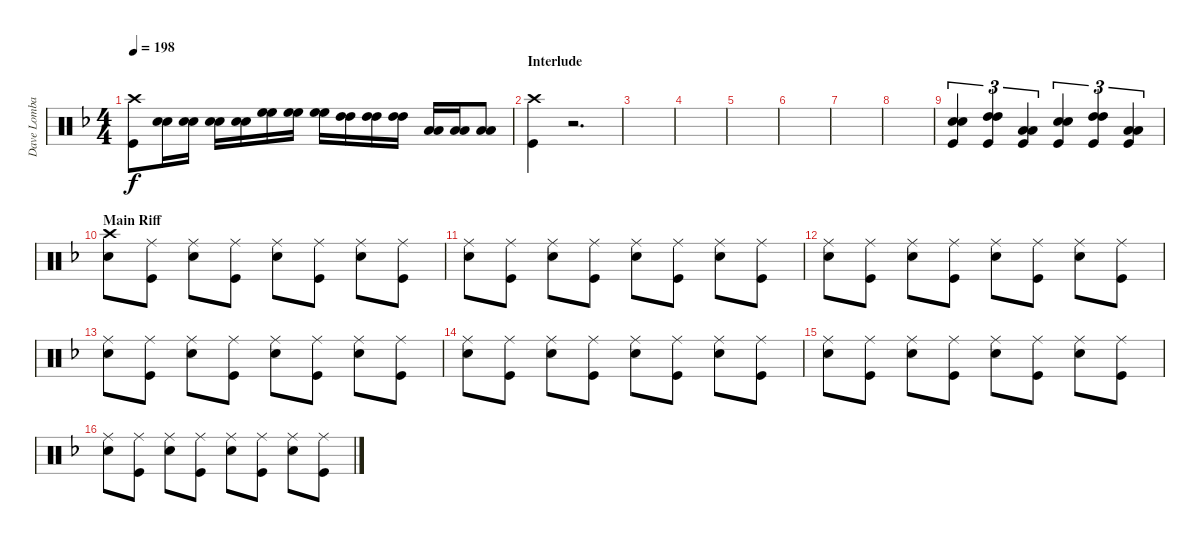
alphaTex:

\track ("Dave Lombardo - Drums" "Dave Lomba") {instrument percussion}
\staff {score}
\articulation defaults
\ts (4 4)
\tempo 198
\clef neutral
\ks f
("Crash high (hit)" "Kick (hit)").8{dy f} ("Snare (hit) 2" "Snare (hit) 2").16 ("Snare (hit) 2" "Snare (hit) 2").16 ("Snare (hit) 2" "Snare (hit) 2").16 ("Snare (hit) 2" "Snare (hit) 2").16 ("High Floor Tom (hit)" "High Floor Tom (hit)").16 ("High Floor Tom (hit)" "High Floor Tom (hit)").16 ("High Floor Tom (hit)" "High Floor Tom (hit)").16 ("High Tom (hit)" "High Tom (hit)").16 ("High Tom (hit)" "High Tom (hit)").16 ("High Tom (hit)" "High Tom (hit)").16 ("Low Tom (hit)" "Low Tom (hit)").16 ("Low Tom (hit)" "Low Tom (hit)").16 ("Low Tom (hit)" "Low Tom (hit)").8 |
\section ("" "Interlude")
("Crash high (hit)" "Kick (hit)").4 r.2{d} |
|
|
|
|
|
|
("Snare (hit) 2" "Snare (hit) 2" "Kick (hit)").4{tu (3 2)} ("High Tom (hit)" "High Tom (hit)" "Kick (hit)").4{tu (3 2)} ("Low Tom (hit)" "Low Tom (hit)" "Kick (hit)").4{tu (3 2)} ("Snare (hit) 2" "Snare (hit) 2" "Kick (hit)").4{tu (3 2)} ("High Tom (hit)" "High Tom (hit)" "Kick (hit)").4{tu (3 2)} ("Low Tom (hit)" "Low Tom (hit)" "Kick (hit)").4{tu (3 2)} |
\section ("" "Main Riff")
("Crash high (hit)" "Snare (hit) 2").8 ("Ride (middle)" "Kick (hit)").8 ("Ride (middle)" "Snare (hit) 2").8 ("Ride (middle)" "Kick (hit)").8 ("Ride (middle)" "Snare (hit) 2").8 ("Ride (middle)" "Kick (hit)").8 ("Ride (middle)" "Snare (hit) 2").8 ("Ride (middle)" "Kick (hit)").8 |
("Ride (middle)" "Snare (hit) 2").8 ("Ride (middle)" "Kick (hit)").8 ("Ride (middle)" "Snare (hit) 2").8 ("Ride (middle)" "Kick (hit)").8 ("Ride (middle)" "Snare (hit) 2").8 ("Ride (middle)" "Kick (hit)").8 ("Ride (middle)" "Snare (hit) 2").8 ("Ride (middle)" "Kick (hit)").8 |
("Ride (middle)" "Snare (hit) 2").8 ("Ride (middle)" "Kick (hit)").8 ("Ride (middle)" "Snare (hit) 2").8 ("Ride (middle)" "Kick (hit)").8 ("Ride (middle)" "Snare (hit) 2").8 ("Ride (middle)" "Kick (hit)").8 ("Ride (middle)" "Snare (hit) 2").8 ("Ride (middle)" "Kick (hit)").8 |
("Ride (middle)" "Snare (hit) 2").8 ("Ride (middle)" "Kick (hit)").8 ("Ride (middle)" "Snare (hit) 2").8 ("Ride (middle)" "Kick (hit)").8 ("Ride (middle)" "Snare (hit) 2").8 ("Ride (middle)" "Kick (hit)").8 ("Ride (middle)" "Snare (hit) 2").8 ("Ride (middle)" "Kick (hit)").8 |
("Ride (middle)" "Snare (hit) 2").8 ("Ride (middle)" "Kick (hit)").8 ("Ride (middle)" "Snare (hit) 2").8 ("Ride (middle)" "Kick (hit)").8 ("Ride (middle)" "Snare (hit) 2").8 ("Ride (middle)" "Kick (hit)").8 ("Ride (middle)" "Snare (hit) 2").8 ("Ride (middle)" "Kick (hit)").8 |
("Ride (middle)" "Snare (hit) 2").8 ("Ride (middle)" "Kick (hit)").8 ("Ride (middle)" "Snare (hit) 2").8 ("Ride (middle)" "Kick (hit)").8 ("Ride (middle)" "Snare (hit) 2").8 ("Ride (middle)" "Kick (hit)").8 ("Ride (middle)" "Snare (hit) 2").8 ("Ride (middle)" "Kick (hit)").8 |
("Ride (middle)" "Snare (hit) 2").8 ("Ride (middle)" "Kick (hit)").8 ("Ride (middle)" "Snare (hit) 2").8 ("Ride (middle)" "Kick (hit)").8 ("Ride (middle)" "Snare (hit) 2").8 ("Ride (middle)" "Kick (hit)").8 ("Ride (middle)" "Snare (hit) 2").8 ("Ride (middle)" "Kick (hit)").8
